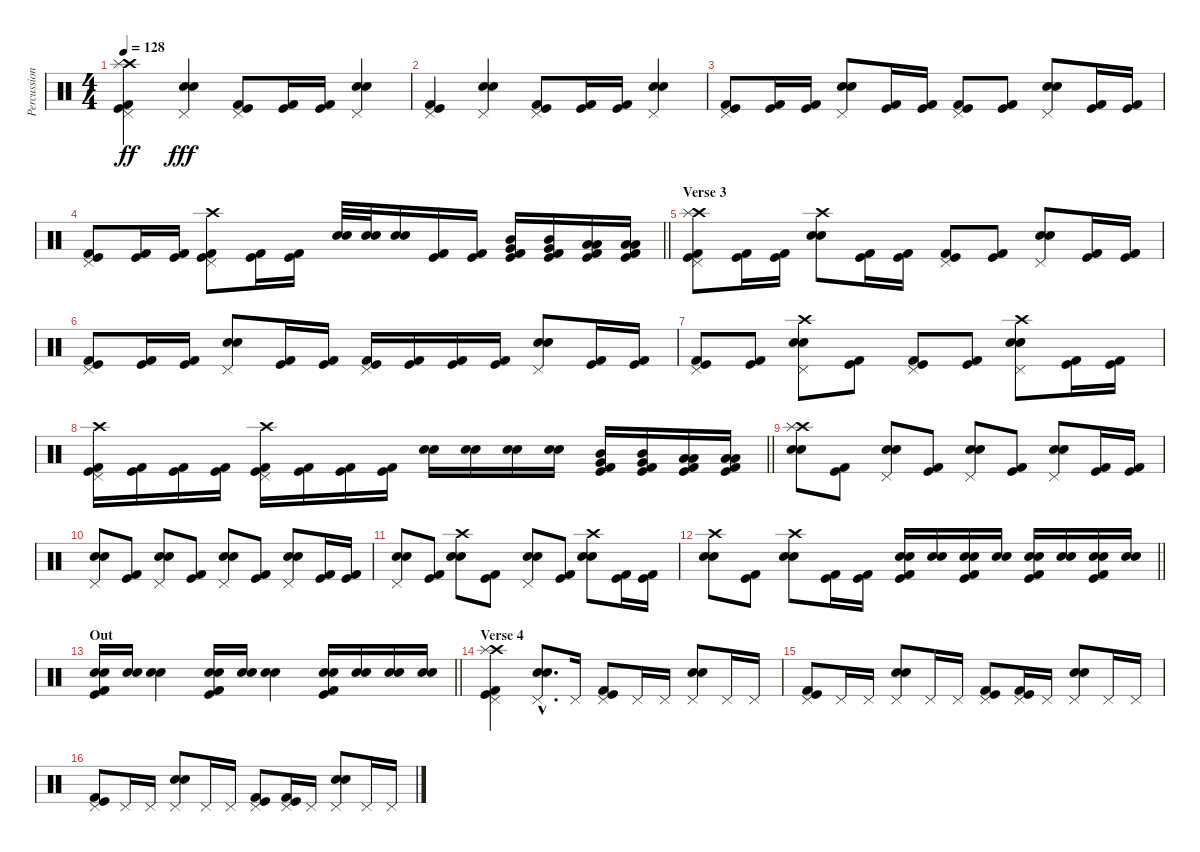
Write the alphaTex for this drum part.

\track ("Percussion" "Percussion") {instrument percussion}
\staff {score}
\articulation defaults
\ts (4 4)
\tempo 128
\clef neutral
\ks c
("Crash high (hit)" "Splash (hit)" "Pedal Hi-Hat (hit)" "Kick (hit)" "Kick (hit) 2").4{dy ff} ("Electric Snare (hit)" "Snare (hit) 2" "Pedal Hi-Hat (hit)").4{dy fff} ("Pedal Hi-Hat (hit)" "Kick (hit)" "Kick (hit) 2").8 ("Kick (hit)" "Kick (hit) 2").16 ("Kick (hit)" "Kick (hit) 2").16 ("Electric Snare (hit)" "Snare (hit) 2" "Pedal Hi-Hat (hit)").4 |
("Pedal Hi-Hat (hit)" "Kick (hit)" "Kick (hit) 2").4 ("Electric Snare (hit)" "Snare (hit) 2" "Pedal Hi-Hat (hit)").4 ("Pedal Hi-Hat (hit)" "Kick (hit)" "Kick (hit) 2").8 ("Kick (hit)" "Kick (hit) 2").16 ("Kick (hit)" "Kick (hit) 2").16 ("Electric Snare (hit)" "Snare (hit) 2" "Pedal Hi-Hat (hit)").4 |
("Pedal Hi-Hat (hit)" "Kick (hit)" "Kick (hit) 2").8 ("Kick (hit)" "Kick (hit) 2").16 ("Kick (hit)" "Kick (hit) 2").16 ("Electric Snare (hit)" "Snare (hit) 2" "Pedal Hi-Hat (hit)").8 ("Kick (hit)" "Kick (hit) 2").16 ("Kick (hit)" "Kick (hit) 2").16 ("Pedal Hi-Hat (hit)" "Kick (hit)" "Kick (hit) 2").8 ("Kick (hit)" "Kick (hit) 2").8 ("Electric Snare (hit)" "Snare (hit) 2" "Pedal Hi-Hat (hit)").8 ("Kick (hit)" "Kick (hit) 2").16 ("Kick (hit)" "Kick (hit) 2").16 |
\barLineRight lightlight
("Pedal Hi-Hat (hit)" "Kick (hit)" "Kick (hit) 2").8 ("Kick (hit)" "Kick (hit) 2").16 ("Kick (hit)" "Kick (hit) 2").16 ("Crash high (hit)" "Pedal Hi-Hat (hit)" "Kick (hit)" "Kick (hit) 2").8 ("Kick (hit)" "Kick (hit) 2").16 ("Kick (hit)" "Kick (hit) 2").16 ("Electric Snare (hit)" "Snare (hit) 2").32 ("Electric Snare (hit)" "Snare (hit) 2").32 ("Electric Snare (hit)" "Snare (hit) 2").16 ("Kick (hit)" "Kick (hit) 2").16 ("Kick (hit)" "Kick (hit) 2").16 ("Very Low Tom (hit)" "Mid Tom (hit)" "Kick (hit)" "Kick (hit) 2").16 ("Very Low Tom (hit)" "Mid Tom (hit)" "Kick (hit)" "Kick (hit) 2").16 ("Low Floor Tom (hit)" "Low Tom (hit)" "Kick (hit)" "Kick (hit) 2").16 ("Low Floor Tom (hit)" "Low Tom (hit)" "Kick (hit)" "Kick (hit) 2").16 |
\section ("" "Verse 3")
("Crash high (hit)" "Splash (hit)" "Pedal Hi-Hat (hit)" "Kick (hit)" "Kick (hit) 2").8 ("Kick (hit)" "Kick (hit) 2").16 ("Kick (hit)" "Kick (hit) 2").16 ("Electric Snare (hit)" "Snare (hit) 2" "Crash high (hit)").8 ("Kick (hit)" "Kick (hit) 2").16 ("Kick (hit)" "Kick (hit) 2").16 ("Pedal Hi-Hat (hit)" "Kick (hit)" "Kick (hit) 2").8 ("Kick (hit)" "Kick (hit) 2").8 ("Electric Snare (hit)" "Snare (hit) 2" "Pedal Hi-Hat (hit)").8 ("Kick (hit)" "Kick (hit) 2").16 ("Kick (hit)" "Kick (hit) 2").16 |
("Pedal Hi-Hat (hit)" "Kick (hit)" "Kick (hit) 2").8 ("Kick (hit)" "Kick (hit) 2").16 ("Kick (hit)" "Kick (hit) 2").16 ("Electric Snare (hit)" "Snare (hit) 2" "Pedal Hi-Hat (hit)").8 ("Kick (hit)" "Kick (hit) 2").16 ("Kick (hit)" "Kick (hit) 2").16 ("Pedal Hi-Hat (hit)" "Kick (hit)" "Kick (hit) 2").16 ("Kick (hit)" "Kick (hit) 2").16 ("Kick (hit)" "Kick (hit) 2").16 ("Kick (hit)" "Kick (hit) 2").16 ("Electric Snare (hit)" "Snare (hit) 2" "Pedal Hi-Hat (hit)").8 ("Kick (hit)" "Kick (hit) 2").16 ("Kick (hit)" "Kick (hit) 2").16 |
("Pedal Hi-Hat (hit)" "Kick (hit)" "Kick (hit) 2").8 ("Kick (hit)" "Kick (hit) 2").8 ("Electric Snare (hit)" "Snare (hit) 2" "Pedal Hi-Hat (hit)" "Crash high (hit)").8 ("Kick (hit)" "Kick (hit) 2").8 ("Pedal Hi-Hat (hit)" "Kick (hit)" "Kick (hit) 2").8 ("Kick (hit)" "Kick (hit) 2").8 ("Electric Snare (hit)" "Snare (hit) 2" "Pedal Hi-Hat (hit)" "Crash high (hit)").8 ("Kick (hit)" "Kick (hit) 2").16 ("Kick (hit)" "Kick (hit) 2").16 |
\barLineRight lightlight
("Crash high (hit)" "Pedal Hi-Hat (hit)" "Kick (hit)" "Kick (hit) 2").16 ("Kick (hit)" "Kick (hit) 2").16 ("Kick (hit)" "Kick (hit) 2").16 ("Kick (hit)" "Kick (hit) 2").16 ("Crash high (hit)" "Pedal Hi-Hat (hit)" "Kick (hit)" "Kick (hit) 2").16 ("Kick (hit)" "Kick (hit) 2").16 ("Kick (hit)" "Kick (hit) 2").16 ("Kick (hit)" "Kick (hit) 2").16 ("Electric Snare (hit)" "Snare (hit) 2").16 ("Electric Snare (hit)" "Snare (hit) 2").16 ("Electric Snare (hit)" "Snare (hit) 2").16 ("Electric Snare (hit)" "Snare (hit) 2").16 ("Very Low Tom (hit)" "Mid Tom (hit)" "Kick (hit)" "Kick (hit) 2").16 ("Very Low Tom (hit)" "Mid Tom (hit)" "Kick (hit)" "Kick (hit) 2").16 ("Low Floor Tom (hit)" "Low Tom (hit)" "Kick (hit)" "Kick (hit) 2").16 ("Low Floor Tom (hit)" "Low Tom (hit)" "Kick (hit)" "Kick (hit) 2").16 |
("Electric Snare (hit)" "Snare (hit) 2" "Crash high (hit)" "Splash (hit)").8 ("Kick (hit)" "Kick (hit) 2").8 ("Electric Snare (hit)" "Snare (hit) 2" "Pedal Hi-Hat (hit)").8 ("Kick (hit)" "Kick (hit) 2").8 ("Electric Snare (hit)" "Snare (hit) 2" "Pedal Hi-Hat (hit)").8 ("Kick (hit)" "Kick (hit) 2").8 ("Electric Snare (hit)" "Snare (hit) 2" "Pedal Hi-Hat (hit)").8 ("Kick (hit)" "Kick (hit) 2").16 ("Kick (hit)" "Kick (hit) 2").16 |
("Electric Snare (hit)" "Snare (hit) 2" "Pedal Hi-Hat (hit)").8 ("Kick (hit)" "Kick (hit) 2").8 ("Electric Snare (hit)" "Snare (hit) 2" "Pedal Hi-Hat (hit)").8 ("Kick (hit)" "Kick (hit) 2").8 ("Electric Snare (hit)" "Snare (hit) 2" "Pedal Hi-Hat (hit)").8 ("Kick (hit)" "Kick (hit) 2").8 ("Electric Snare (hit)" "Snare (hit) 2" "Pedal Hi-Hat (hit)").8 ("Kick (hit)" "Kick (hit) 2").16 ("Kick (hit)" "Kick (hit) 2").16 |
("Electric Snare (hit)" "Snare (hit) 2" "Pedal Hi-Hat (hit)").8 ("Kick (hit)" "Kick (hit) 2").8 ("Electric Snare (hit)" "Snare (hit) 2" "Crash high (hit)").8 ("Kick (hit)" "Kick (hit) 2").8 ("Electric Snare (hit)" "Snare (hit) 2" "Pedal Hi-Hat (hit)").8 ("Kick (hit)" "Kick (hit) 2").8 ("Electric Snare (hit)" "Snare (hit) 2" "Crash high (hit)").8 ("Kick (hit)" "Kick (hit) 2").16 ("Kick (hit)" "Kick (hit) 2").16 |
\barLineRight lightlight
("Electric Snare (hit)" "Snare (hit) 2" "Crash high (hit)").8 ("Kick (hit)" "Kick (hit) 2").8 ("Electric Snare (hit)" "Snare (hit) 2" "Crash high (hit)").8 ("Kick (hit)" "Kick (hit) 2").16 ("Kick (hit)" "Kick (hit) 2").16 ("Electric Snare (hit)" "Snare (hit) 2" "Kick (hit)" "Kick (hit) 2").16 ("Electric Snare (hit)" "Snare (hit) 2").16 ("Electric Snare (hit)" "Snare (hit) 2" "Kick (hit)" "Kick (hit) 2").16 ("Electric Snare (hit)" "Snare (hit) 2").16 ("Electric Snare (hit)" "Snare (hit) 2" "Kick (hit)" "Kick (hit) 2").16 ("Electric Snare (hit)" "Snare (hit) 2").16 ("Electric Snare (hit)" "Snare (hit) 2" "Kick (hit)" "Kick (hit) 2").16 ("Electric Snare (hit)" "Snare (hit) 2").16 |
\section ("" "Out")
\barLineRight lightlight
("Electric Snare (hit)" "Snare (hit) 2" "Kick (hit)" "Kick (hit) 2").16 ("Electric Snare (hit)" "Snare (hit) 2").16 ("Electric Snare (hit)" "Snare (hit) 2").4 ("Electric Snare (hit)" "Snare (hit) 2" "Kick (hit)" "Kick (hit) 2").16 ("Electric Snare (hit)" "Snare (hit) 2").16 ("Electric Snare (hit)" "Snare (hit) 2").4 ("Electric Snare (hit)" "Snare (hit) 2" "Kick (hit)" "Kick (hit) 2").16 ("Electric Snare (hit)" "Snare (hit) 2").16 ("Electric Snare (hit)" "Snare (hit) 2").16 ("Electric Snare (hit)" "Snare (hit) 2").16 |
\section ("" "Verse 4")
("Crash high (hit)" "Splash (hit)" "Pedal Hi-Hat (hit)" "Kick (hit)" "Kick (hit) 2").4 ("Electric Snare (hit)"{hac} "Snare (hit) 2"{hac} "Pedal Hi-Hat (hit)"{hac}).8{d} "Pedal Hi-Hat (hit)".16 ("Pedal Hi-Hat (hit)" "Kick (hit) 2" "Kick (hit)").8 "Pedal Hi-Hat (hit)".16 "Pedal Hi-Hat (hit)".16 ("Electric Snare (hit)" "Snare (hit) 2" "Pedal Hi-Hat (hit)").8 "Pedal Hi-Hat (hit)".16 "Pedal Hi-Hat (hit)".16 |
("Pedal Hi-Hat (hit)" "Kick (hit) 2" "Kick (hit)").8 "Pedal Hi-Hat (hit)".16 "Pedal Hi-Hat (hit)".16 ("Electric Snare (hit)" "Snare (hit) 2" "Pedal Hi-Hat (hit)").8 "Pedal Hi-Hat (hit)".16 "Pedal Hi-Hat (hit)".16 ("Pedal Hi-Hat (hit)" "Kick (hit) 2" "Kick (hit)").8 ("Pedal Hi-Hat (hit)" "Kick (hit)" "Kick (hit) 2").16 "Pedal Hi-Hat (hit)".16 ("Electric Snare (hit)" "Snare (hit) 2" "Pedal Hi-Hat (hit)").8 "Pedal Hi-Hat (hit)".16 "Pedal Hi-Hat (hit)".16 |
("Pedal Hi-Hat (hit)" "Kick (hit) 2" "Kick (hit)").8 "Pedal Hi-Hat (hit)".16 "Pedal Hi-Hat (hit)".16 ("Electric Snare (hit)" "Snare (hit) 2" "Pedal Hi-Hat (hit)").8 "Pedal Hi-Hat (hit)".16 "Pedal Hi-Hat (hit)".16 ("Pedal Hi-Hat (hit)" "Kick (hit) 2" "Kick (hit)").8 ("Pedal Hi-Hat (hit)" "Kick (hit)" "Kick (hit) 2").16 "Pedal Hi-Hat (hit)".16 ("Electric Snare (hit)" "Snare (hit) 2" "Pedal Hi-Hat (hit)").8 "Pedal Hi-Hat (hit)".16 "Pedal Hi-Hat (hit)".16
